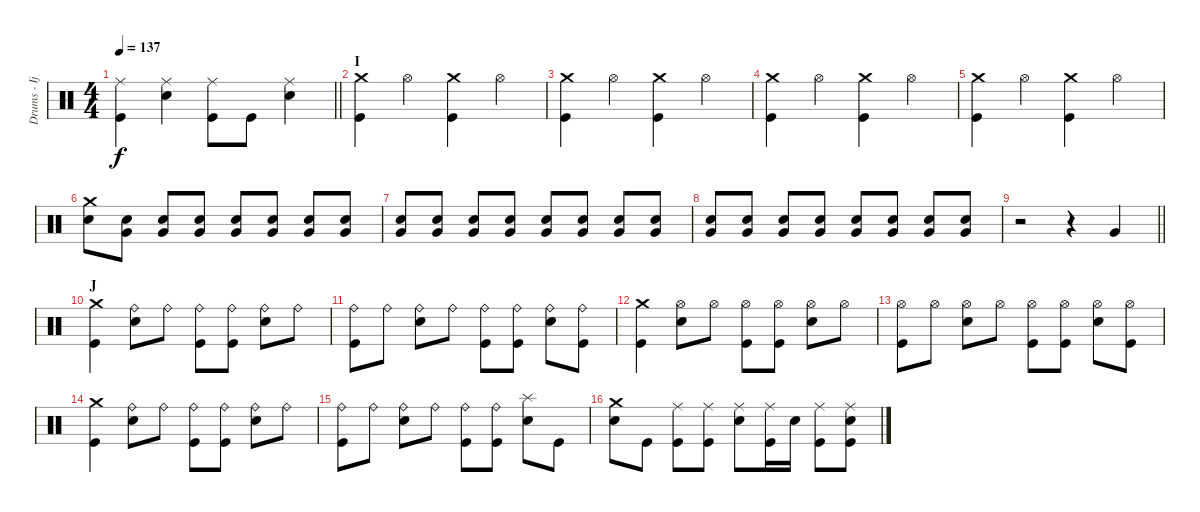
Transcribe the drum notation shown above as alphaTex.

\track ("Drums - Ijichi" "Drums - Ij") {instrument percussion}
\staff {score}
\articulation defaults
\ts (4 4)
\tempo 137
\clef neutral
\barLineRight lightlight
\ks c
("Ride (middle)" "Kick (hit)").4{dy f} ("Ride (middle)" "Electric Snare (hit)").4 ("Ride (middle)" "Kick (hit)").8 "Kick (hit)".8 ("Ride (middle)" "Electric Snare (hit)").4 |
\section ("" "I")
("Crash medium (hit)" "Kick (hit)").4 "Hi-Hat (open)".4 ("Crash medium (hit)" "Kick (hit)").4 "Hi-Hat (open)".4 |
("Crash medium (hit)" "Kick (hit)").4 "Hi-Hat (open)".4 ("Crash medium (hit)" "Kick (hit)").4 "Hi-Hat (open)".4 |
("Crash medium (hit)" "Kick (hit)").4 "Hi-Hat (open)".4 ("Crash medium (hit)" "Kick (hit)").4 "Hi-Hat (open)".4 |
("Crash medium (hit)" "Kick (hit)").4 "Hi-Hat (open)".4 ("Crash medium (hit)" "Kick (hit)").4 "Hi-Hat (open)".4 |
("Crash medium (hit)" "Electric Snare (hit)").8{volume 11} ("Electric Snare (hit)" "Very Low Tom (hit)").8{volume 13} ("Electric Snare (hit)" "Very Low Tom (hit)").8 ("Electric Snare (hit)" "Very Low Tom (hit)").8 ("Electric Snare (hit)" "Very Low Tom (hit)").8 ("Electric Snare (hit)" "Very Low Tom (hit)").8 ("Electric Snare (hit)" "Very Low Tom (hit)").8 ("Electric Snare (hit)" "Very Low Tom (hit)").8 |
("Electric Snare (hit)" "Very Low Tom (hit)").8 ("Electric Snare (hit)" "Very Low Tom (hit)").8 ("Electric Snare (hit)" "Very Low Tom (hit)").8 ("Electric Snare (hit)" "Very Low Tom (hit)").8 ("Electric Snare (hit)" "Very Low Tom (hit)").8 ("Electric Snare (hit)" "Very Low Tom (hit)").8 ("Electric Snare (hit)" "Very Low Tom (hit)").8 ("Electric Snare (hit)" "Very Low Tom (hit)").8 |
("Electric Snare (hit)" "Very Low Tom (hit)").8{volume 11} ("Electric Snare (hit)" "Very Low Tom (hit)").8{volume 13} ("Electric Snare (hit)" "Very Low Tom (hit)").8 ("Electric Snare (hit)" "Very Low Tom (hit)").8 ("Electric Snare (hit)" "Very Low Tom (hit)").8 ("Electric Snare (hit)" "Very Low Tom (hit)").8 ("Electric Snare (hit)" "Very Low Tom (hit)").8 ("Electric Snare (hit)" "Very Low Tom (hit)").8 |
\barLineRight lightlight
r.2 r.4 "Very Low Tom (hit)".4 |
\section ("" "J")
("Crash medium (hit)" "Kick (hit)").4 ("Ride (bell)" "Electric Snare (hit)").8 "Ride (bell)".8 ("Ride (bell)" "Kick (hit)").8 ("Ride (bell)" "Kick (hit)").8 ("Ride (bell)" "Electric Snare (hit)").8 "Ride (bell)".8 |
("Ride (bell)" "Kick (hit)").8 "Ride (bell)".8 ("Ride (bell)" "Electric Snare (hit)").8 "Ride (bell)".8 ("Ride (bell)" "Kick (hit)").8 ("Ride (bell)" "Kick (hit)").8 ("Ride (bell)" "Electric Snare (hit)").8 ("Ride (bell)" "Kick (hit)").8 |
("Crash medium (hit)" "Kick (hit)").4 ("Hi-Hat (open)" "Electric Snare (hit)").8 "Hi-Hat (open)".8 ("Hi-Hat (open)" "Kick (hit)").8 ("Hi-Hat (open)" "Kick (hit)").8 ("Hi-Hat (open)" "Electric Snare (hit)").8 "Hi-Hat (open)".8 |
("Hi-Hat (open)" "Kick (hit)").8 "Hi-Hat (open)".8 ("Hi-Hat (open)" "Electric Snare (hit)").8 "Hi-Hat (open)".8 ("Hi-Hat (open)" "Kick (hit)").8 ("Hi-Hat (open)" "Kick (hit)").8 ("Hi-Hat (open)" "Electric Snare (hit)").8 ("Hi-Hat (open)" "Kick (hit)").8 |
("Crash medium (hit)" "Kick (hit)").4 ("Ride (bell)" "Electric Snare (hit)").8 "Ride (bell)".8 ("Ride (bell)" "Kick (hit)").8 ("Ride (bell)" "Kick (hit)").8 ("Ride (bell)" "Electric Snare (hit)").8 "Ride (bell)".8 |
("Ride (bell)" "Kick (hit)").8 "Ride (bell)".8 ("Ride (bell)" "Electric Snare (hit)").8 "Ride (bell)".8 ("Ride (bell)" "Kick (hit)").8 ("Ride (bell)" "Kick (hit)").8 ("Splash (hit)" "Electric Snare (hit)").8 "Kick (hit)".8 |
("Crash medium (hit)" "Electric Snare (hit)").8 "Kick (hit)".8 ("Ride (middle)" "Kick (hit)").8 ("Ride (middle)" "Kick (hit)").8 ("Ride (middle)" "Electric Snare (hit)").8 ("Ride (middle)" "Kick (hit)").16 "Electric Snare (hit)".16 ("Ride (middle)" "Kick (hit)").8 ("Ride (middle)" "Electric Snare (hit)" "Kick (hit)").8
